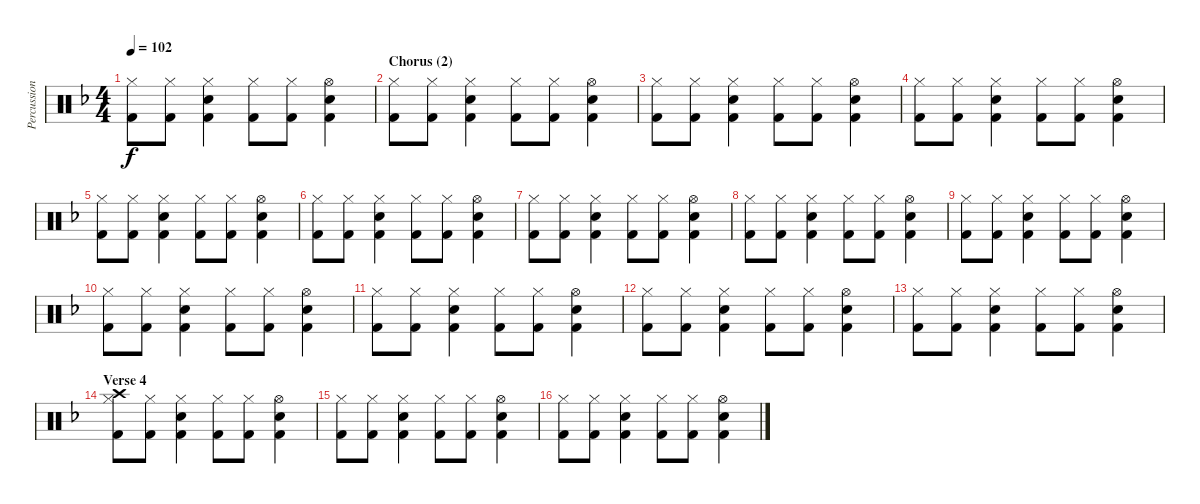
\track ("Percussion" "Percussion") {instrument percussion}
\staff {score}
\articulation defaults
\ts (4 4)
\tempo 102
\clef neutral
\ks dminor
("Hi-Hat (closed)" "Kick (hit) 2").8{dy f} ("Hi-Hat (closed)" "Kick (hit) 2").8 ("Hi-Hat (closed)" "Kick (hit) 2" "Snare (hit) 2").4 ("Hi-Hat (closed)" "Kick (hit) 2").8 ("Hi-Hat (closed)" "Kick (hit) 2").8 ("Hi-Hat (open)" "Kick (hit) 2" "Snare (hit) 2").4 |
\section ("" "Chorus (2)")
("Hi-Hat (closed)" "Kick (hit) 2").8 ("Hi-Hat (closed)" "Kick (hit) 2").8 ("Hi-Hat (closed)" "Kick (hit) 2" "Snare (hit) 2").4 ("Hi-Hat (closed)" "Kick (hit) 2").8 ("Hi-Hat (closed)" "Kick (hit) 2").8 ("Hi-Hat (open)" "Kick (hit) 2" "Snare (hit) 2").4 |
("Hi-Hat (closed)" "Kick (hit) 2").8 ("Hi-Hat (closed)" "Kick (hit) 2").8 ("Hi-Hat (closed)" "Kick (hit) 2" "Snare (hit) 2").4 ("Hi-Hat (closed)" "Kick (hit) 2").8 ("Hi-Hat (closed)" "Kick (hit) 2").8 ("Hi-Hat (open)" "Kick (hit) 2" "Snare (hit) 2").4 |
("Hi-Hat (closed)" "Kick (hit) 2").8 ("Hi-Hat (closed)" "Kick (hit) 2").8 ("Hi-Hat (closed)" "Kick (hit) 2" "Snare (hit) 2").4 ("Hi-Hat (closed)" "Kick (hit) 2").8 ("Hi-Hat (closed)" "Kick (hit) 2").8 ("Hi-Hat (open)" "Kick (hit) 2" "Snare (hit) 2").4 |
("Hi-Hat (closed)" "Kick (hit) 2").8 ("Hi-Hat (closed)" "Kick (hit) 2").8 ("Hi-Hat (closed)" "Kick (hit) 2" "Snare (hit) 2").4 ("Hi-Hat (closed)" "Kick (hit) 2").8 ("Hi-Hat (closed)" "Kick (hit) 2").8 ("Hi-Hat (open)" "Kick (hit) 2" "Snare (hit) 2").4 |
("Hi-Hat (closed)" "Kick (hit) 2").8 ("Hi-Hat (closed)" "Kick (hit) 2").8 ("Hi-Hat (closed)" "Kick (hit) 2" "Snare (hit) 2").4 ("Hi-Hat (closed)" "Kick (hit) 2").8 ("Hi-Hat (closed)" "Kick (hit) 2").8 ("Hi-Hat (open)" "Kick (hit) 2" "Snare (hit) 2").4 |
("Hi-Hat (closed)" "Kick (hit) 2").8 ("Hi-Hat (closed)" "Kick (hit) 2").8 ("Hi-Hat (closed)" "Kick (hit) 2" "Snare (hit) 2").4 ("Hi-Hat (closed)" "Kick (hit) 2").8 ("Hi-Hat (closed)" "Kick (hit) 2").8 ("Hi-Hat (open)" "Kick (hit) 2" "Snare (hit) 2").4 |
("Hi-Hat (closed)" "Kick (hit) 2").8 ("Hi-Hat (closed)" "Kick (hit) 2").8 ("Hi-Hat (closed)" "Kick (hit) 2" "Snare (hit) 2").4 ("Hi-Hat (closed)" "Kick (hit) 2").8 ("Hi-Hat (closed)" "Kick (hit) 2").8 ("Hi-Hat (open)" "Kick (hit) 2" "Snare (hit) 2").4 |
("Hi-Hat (closed)" "Kick (hit) 2").8 ("Hi-Hat (closed)" "Kick (hit) 2").8 ("Hi-Hat (closed)" "Kick (hit) 2" "Snare (hit) 2").4 ("Hi-Hat (closed)" "Kick (hit) 2").8 ("Hi-Hat (closed)" "Kick (hit) 2").8 ("Hi-Hat (open)" "Kick (hit) 2" "Snare (hit) 2").4 |
("Hi-Hat (closed)" "Kick (hit) 2").8 ("Hi-Hat (closed)" "Kick (hit) 2").8 ("Hi-Hat (closed)" "Kick (hit) 2" "Snare (hit) 2").4 ("Hi-Hat (closed)" "Kick (hit) 2").8 ("Hi-Hat (closed)" "Kick (hit) 2").8 ("Hi-Hat (open)" "Kick (hit) 2" "Snare (hit) 2").4 |
("Hi-Hat (closed)" "Kick (hit) 2").8 ("Hi-Hat (closed)" "Kick (hit) 2").8 ("Hi-Hat (closed)" "Kick (hit) 2" "Snare (hit) 2").4 ("Hi-Hat (closed)" "Kick (hit) 2").8 ("Hi-Hat (closed)" "Kick (hit) 2").8 ("Hi-Hat (open)" "Kick (hit) 2" "Snare (hit) 2").4 |
("Hi-Hat (closed)" "Kick (hit) 2").8 ("Hi-Hat (closed)" "Kick (hit) 2").8 ("Hi-Hat (closed)" "Kick (hit) 2" "Snare (hit) 2").4 ("Hi-Hat (closed)" "Kick (hit) 2").8 ("Hi-Hat (closed)" "Kick (hit) 2").8 ("Hi-Hat (open)" "Kick (hit) 2" "Snare (hit) 2").4 |
("Hi-Hat (closed)" "Kick (hit) 2").8 ("Hi-Hat (closed)" "Kick (hit) 2").8 ("Hi-Hat (closed)" "Kick (hit) 2" "Snare (hit) 2").4 ("Hi-Hat (closed)" "Kick (hit) 2").8 ("Hi-Hat (closed)" "Kick (hit) 2").8 ("Hi-Hat (open)" "Kick (hit) 2" "Snare (hit) 2").4 |
\section ("" "Verse 4")
("Hi-Hat (closed)" "Kick (hit) 2" "Crash high (hit)").8 ("Hi-Hat (closed)" "Kick (hit) 2").8 ("Hi-Hat (closed)" "Kick (hit) 2" "Snare (hit) 2").4 ("Hi-Hat (closed)" "Kick (hit) 2").8 ("Hi-Hat (closed)" "Kick (hit) 2").8 ("Hi-Hat (open)" "Kick (hit) 2" "Snare (hit) 2").4 |
("Hi-Hat (closed)" "Kick (hit) 2").8 ("Hi-Hat (closed)" "Kick (hit) 2").8 ("Hi-Hat (closed)" "Kick (hit) 2" "Snare (hit) 2").4 ("Hi-Hat (closed)" "Kick (hit) 2").8 ("Hi-Hat (closed)" "Kick (hit) 2").8 ("Hi-Hat (open)" "Kick (hit) 2" "Snare (hit) 2").4 |
("Hi-Hat (closed)" "Kick (hit) 2").8 ("Hi-Hat (closed)" "Kick (hit) 2").8 ("Hi-Hat (closed)" "Kick (hit) 2" "Snare (hit) 2").4 ("Hi-Hat (closed)" "Kick (hit) 2").8 ("Hi-Hat (closed)" "Kick (hit) 2").8 ("Hi-Hat (open)" "Kick (hit) 2" "Snare (hit) 2").4
